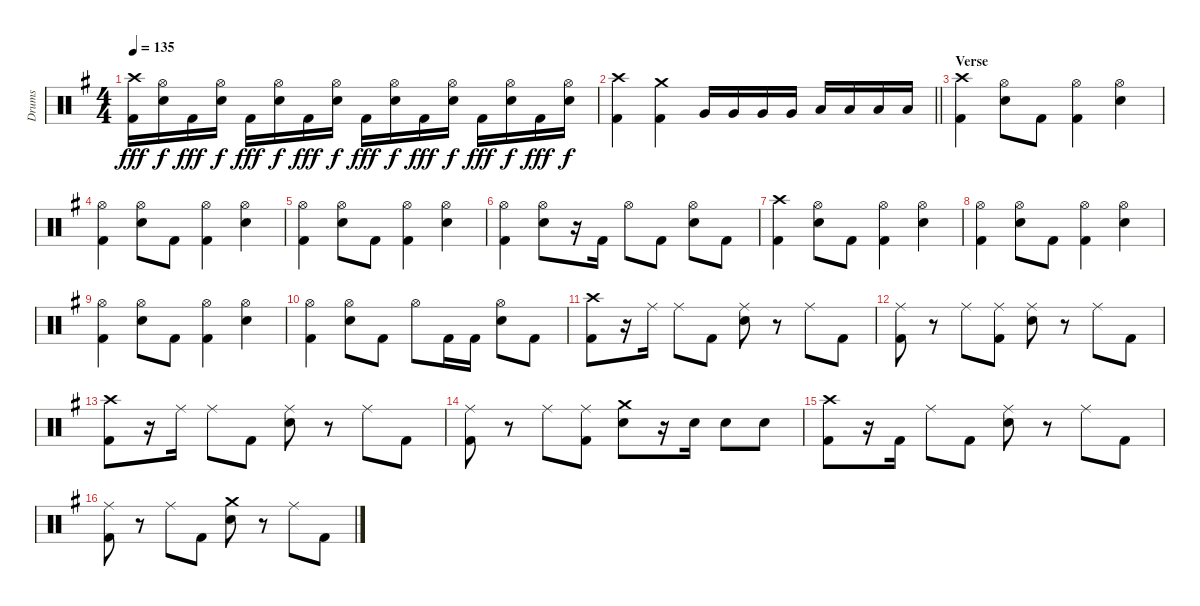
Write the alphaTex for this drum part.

\track ("Drums" "Drums") {instrument percussion}
\staff {score}
\articulation defaults
\ts (4 4)
\tempo 135
\clef neutral
\ks g
("Crash high (hit)" "Kick (hit) 2").16{dy fff} ("Hi-Hat (open)" "Snare (hit) 2").16{dy f} "Kick (hit) 2".16{dy fff} ("Hi-Hat (open)" "Snare (hit) 2").16{dy f} "Kick (hit) 2".16{dy fff} ("Hi-Hat (open)" "Snare (hit) 2").16{dy f} "Kick (hit) 2".16{dy fff} ("Hi-Hat (open)" "Snare (hit) 2").16{dy f} "Kick (hit) 2".16{dy fff} ("Hi-Hat (open)" "Snare (hit) 2").16{dy f} "Kick (hit) 2".16{dy fff} ("Hi-Hat (open)" "Snare (hit) 2").16{dy f} "Kick (hit) 2".16{dy fff} ("Hi-Hat (open)" "Snare (hit) 2").16{dy f} "Kick (hit) 2".16{dy fff} ("Hi-Hat (open)" "Snare (hit) 2").16{dy f} |
\barLineRight lightlight
("Crash high (hit)" "Kick (hit) 2").4 ("Crash medium (hit)" "Kick (hit) 2").4 "Very Low Tom (hit)".16 "Very Low Tom (hit)".16 "Very Low Tom (hit)".16 "Very Low Tom (hit)".16 "Low Floor Tom (hit)".16 "Low Floor Tom (hit)".16 "Low Floor Tom (hit)".16 "Low Floor Tom (hit)".16 |
\section ("" "Verse")
("Crash high (hit)" "Kick (hit) 2").4 ("Hi-Hat (open)" "Snare (hit) 2").8 "Kick (hit) 2".8 ("Hi-Hat (open)" "Kick (hit) 2").4 ("Hi-Hat (open)" "Snare (hit) 2").4 |
("Hi-Hat (open)" "Kick (hit) 2").4 ("Hi-Hat (open)" "Snare (hit) 2").8 "Kick (hit) 2".8 ("Hi-Hat (open)" "Kick (hit) 2").4 ("Hi-Hat (open)" "Snare (hit) 2").4 |
("Hi-Hat (open)" "Kick (hit) 2").4 ("Hi-Hat (open)" "Snare (hit) 2").8 "Kick (hit) 2".8 ("Hi-Hat (open)" "Kick (hit) 2").4 ("Hi-Hat (open)" "Snare (hit) 2").4 |
("Hi-Hat (open)" "Kick (hit) 2").4 ("Hi-Hat (open)" "Snare (hit) 2").8 r.16 "Kick (hit) 2".16 "Hi-Hat (open)".8 "Kick (hit) 2".8 ("Hi-Hat (open)" "Snare (hit) 2").8 "Kick (hit) 2".8 |
("Crash high (hit)" "Kick (hit) 2").4 ("Hi-Hat (open)" "Snare (hit) 2").8 "Kick (hit) 2".8 ("Hi-Hat (open)" "Kick (hit) 2").4 ("Hi-Hat (open)" "Snare (hit) 2").4 |
("Hi-Hat (open)" "Kick (hit) 2").4 ("Hi-Hat (open)" "Snare (hit) 2").8 "Kick (hit) 2".8 ("Hi-Hat (open)" "Kick (hit) 2").4 ("Hi-Hat (open)" "Snare (hit) 2").4 |
("Hi-Hat (open)" "Kick (hit) 2").4 ("Hi-Hat (open)" "Snare (hit) 2").8 "Kick (hit) 2".8 ("Hi-Hat (open)" "Kick (hit) 2").4 ("Hi-Hat (open)" "Snare (hit) 2").4 |
("Hi-Hat (open)" "Kick (hit) 2").4 ("Hi-Hat (open)" "Snare (hit) 2").8 "Kick (hit) 2".8 "Hi-Hat (open)".8 "Kick (hit) 2".16 "Kick (hit) 2".16 ("Hi-Hat (open)" "Snare (hit) 2").8 "Kick (hit) 2".8 |
("Crash high (hit)" "Kick (hit) 2").8 r.16 "Ride (middle)".16 "Ride (middle)".8 "Kick (hit) 2".8 ("Ride (middle)" "Snare (hit) 2").8 r.8 "Ride (middle)".8 "Kick (hit) 2".8 |
("Ride (middle)" "Kick (hit) 2").8 r.8 "Ride (middle)".8 ("Ride (middle)" "Kick (hit) 2").8 ("Ride (middle)" "Snare (hit) 2").8 r.8 "Ride (middle)".8 "Kick (hit) 2".8 |
("Crash high (hit)" "Kick (hit) 2").8 r.16 "Ride (middle)".16 "Ride (middle)".8 "Kick (hit) 2".8 ("Ride (middle)" "Snare (hit) 2").8 r.8 "Ride (middle)".8 "Kick (hit) 2".8 |
("Ride (middle)" "Kick (hit) 2").8 r.8 "Ride (middle)".8 ("Ride (middle)" "Kick (hit) 2").8 ("Crash medium (hit)" "Snare (hit) 2").8 r.16 "Snare (hit) 2".16 "Snare (hit) 2".8 "Snare (hit) 2".8 |
("Crash high (hit)" "Kick (hit) 2").8 r.16 "Kick (hit) 2".16 "Ride (middle)".8 "Kick (hit) 2".8 ("Ride (middle)" "Snare (hit) 2").8 r.8 "Ride (middle)".8 "Kick (hit) 2".8 |
("Ride (middle)" "Kick (hit) 2").8 r.8 "Ride (middle)".8 "Kick (hit) 2".8 ("Crash medium (hit)" "Snare (hit) 2").8 r.8 "Ride (middle)".8 "Kick (hit) 2".8
